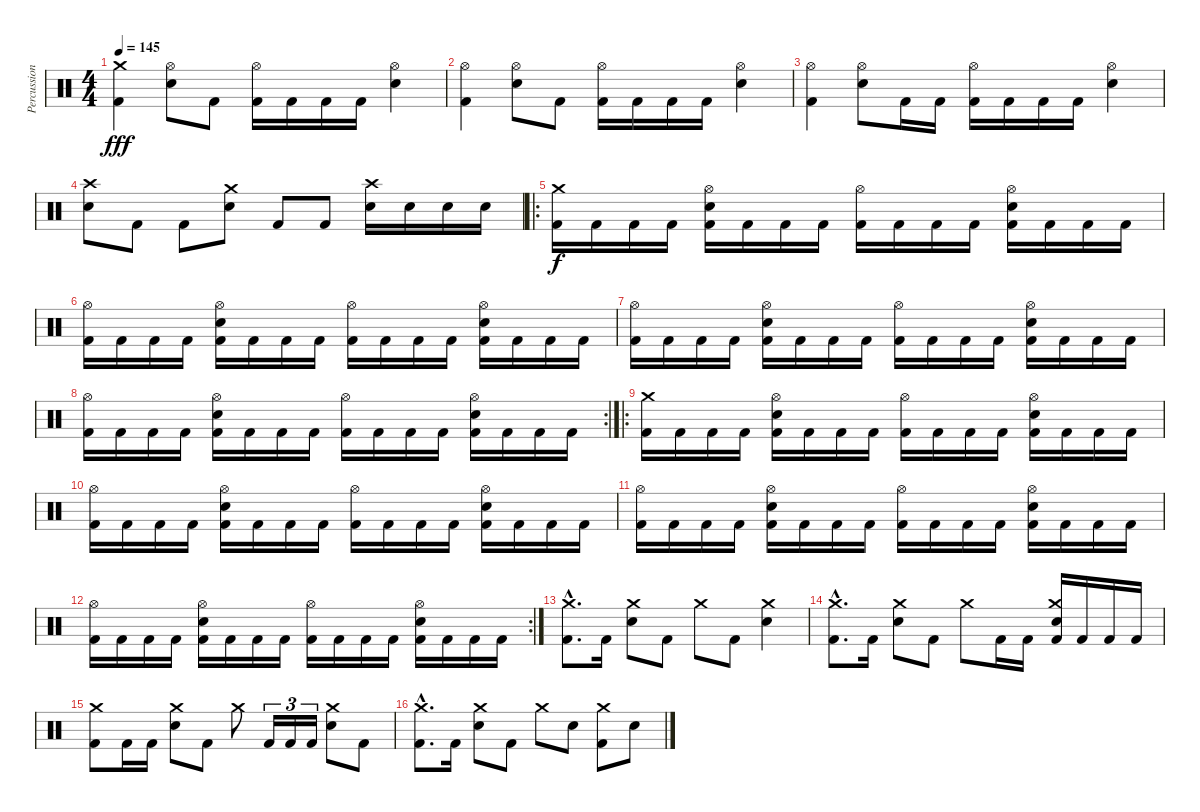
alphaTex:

\track ("Percussion" "Percussion") {instrument percussion}
\staff {score}
\articulation defaults
\ts (4 4)
\tempo 145
\clef neutral
\ks c
("Kick (hit) 2" "Crash medium (hit)").4{dy fff} ("Electric Snare (hit)" "Hi-Hat (open)").8 "Kick (hit) 2".8 ("Kick (hit) 2" "Hi-Hat (open)").16 "Kick (hit) 2".16 "Kick (hit) 2".16 "Kick (hit) 2".16 ("Electric Snare (hit)" "Hi-Hat (open)").4 |
("Kick (hit) 2" "Hi-Hat (open)").4 ("Electric Snare (hit)" "Hi-Hat (open)").8 "Kick (hit) 2".8 ("Kick (hit) 2" "Hi-Hat (open)").16 "Kick (hit) 2".16 "Kick (hit) 2".16 "Kick (hit) 2".16 ("Electric Snare (hit)" "Hi-Hat (open)").4 |
("Kick (hit) 2" "Hi-Hat (open)").4 ("Electric Snare (hit)" "Hi-Hat (open)").8 "Kick (hit) 2".16 "Kick (hit) 2".16 ("Kick (hit) 2" "Hi-Hat (open)").16 "Kick (hit) 2".16 "Kick (hit) 2".16 "Kick (hit) 2".16 ("Electric Snare (hit)" "Hi-Hat (open)").4 |
("Electric Snare (hit)" "Crash high (hit)").8 "Kick (hit) 2".8 "Kick (hit) 2".8 ("Electric Snare (hit)" "Crash medium (hit)").8 "Kick (hit) 2".8 "Kick (hit) 2".8 ("Electric Snare (hit)" "Crash high (hit)").16 "Electric Snare (hit)".16 "Electric Snare (hit)".16 "Electric Snare (hit)".16 |
\ro
("Kick (hit) 2" "Crash medium (hit)").16{dy f} "Kick (hit) 2".16 "Kick (hit) 2".16 "Kick (hit) 2".16 ("Kick (hit) 2" "Electric Snare (hit)" "Hi-Hat (open)").16 "Kick (hit) 2".16 "Kick (hit) 2".16 "Kick (hit) 2".16 ("Kick (hit) 2" "Hi-Hat (open)").16 "Kick (hit) 2".16 "Kick (hit) 2".16 "Kick (hit) 2".16 ("Kick (hit) 2" "Electric Snare (hit)" "Hi-Hat (open)").16 "Kick (hit) 2".16 "Kick (hit) 2".16 "Kick (hit) 2".16 |
("Kick (hit) 2" "Hi-Hat (open)").16 "Kick (hit) 2".16 "Kick (hit) 2".16 "Kick (hit) 2".16 ("Kick (hit) 2" "Electric Snare (hit)" "Hi-Hat (open)").16 "Kick (hit) 2".16 "Kick (hit) 2".16 "Kick (hit) 2".16 ("Kick (hit) 2" "Hi-Hat (open)").16 "Kick (hit) 2".16 "Kick (hit) 2".16 "Kick (hit) 2".16 ("Kick (hit) 2" "Electric Snare (hit)" "Hi-Hat (open)").16 "Kick (hit) 2".16 "Kick (hit) 2".16 "Kick (hit) 2".16 |
("Kick (hit) 2" "Hi-Hat (open)").16 "Kick (hit) 2".16 "Kick (hit) 2".16 "Kick (hit) 2".16 ("Kick (hit) 2" "Electric Snare (hit)" "Hi-Hat (open)").16 "Kick (hit) 2".16 "Kick (hit) 2".16 "Kick (hit) 2".16 ("Kick (hit) 2" "Hi-Hat (open)").16 "Kick (hit) 2".16 "Kick (hit) 2".16 "Kick (hit) 2".16 ("Kick (hit) 2" "Electric Snare (hit)" "Hi-Hat (open)").16 "Kick (hit) 2".16 "Kick (hit) 2".16 "Kick (hit) 2".16 |
\rc 2
("Kick (hit) 2" "Hi-Hat (open)").16 "Kick (hit) 2".16 "Kick (hit) 2".16 "Kick (hit) 2".16 ("Kick (hit) 2" "Electric Snare (hit)" "Hi-Hat (open)").16 "Kick (hit) 2".16 "Kick (hit) 2".16 "Kick (hit) 2".16 ("Kick (hit) 2" "Hi-Hat (open)").16 "Kick (hit) 2".16 "Kick (hit) 2".16 "Kick (hit) 2".16 ("Kick (hit) 2" "Electric Snare (hit)" "Hi-Hat (open)").16 "Kick (hit) 2".16 "Kick (hit) 2".16 "Kick (hit) 2".16 |
\ro
("Kick (hit) 2" "Crash medium (hit)").16 "Kick (hit) 2".16 "Kick (hit) 2".16 "Kick (hit) 2".16 ("Kick (hit) 2" "Electric Snare (hit)" "Hi-Hat (open)").16 "Kick (hit) 2".16 "Kick (hit) 2".16 "Kick (hit) 2".16 ("Kick (hit) 2" "Hi-Hat (open)").16 "Kick (hit) 2".16 "Kick (hit) 2".16 "Kick (hit) 2".16 ("Kick (hit) 2" "Electric Snare (hit)" "Hi-Hat (open)").16 "Kick (hit) 2".16 "Kick (hit) 2".16 "Kick (hit) 2".16 |
("Kick (hit) 2" "Hi-Hat (open)").16 "Kick (hit) 2".16 "Kick (hit) 2".16 "Kick (hit) 2".16 ("Kick (hit) 2" "Electric Snare (hit)" "Hi-Hat (open)").16 "Kick (hit) 2".16 "Kick (hit) 2".16 "Kick (hit) 2".16 ("Kick (hit) 2" "Hi-Hat (open)").16 "Kick (hit) 2".16 "Kick (hit) 2".16 "Kick (hit) 2".16 ("Kick (hit) 2" "Electric Snare (hit)" "Hi-Hat (open)").16 "Kick (hit) 2".16 "Kick (hit) 2".16 "Kick (hit) 2".16 |
("Kick (hit) 2" "Hi-Hat (open)").16 "Kick (hit) 2".16 "Kick (hit) 2".16 "Kick (hit) 2".16 ("Kick (hit) 2" "Electric Snare (hit)" "Hi-Hat (open)").16 "Kick (hit) 2".16 "Kick (hit) 2".16 "Kick (hit) 2".16 ("Kick (hit) 2" "Hi-Hat (open)").16 "Kick (hit) 2".16 "Kick (hit) 2".16 "Kick (hit) 2".16 ("Kick (hit) 2" "Electric Snare (hit)" "Hi-Hat (open)").16 "Kick (hit) 2".16 "Kick (hit) 2".16 "Kick (hit) 2".16 |
\rc 2
("Kick (hit) 2" "Hi-Hat (open)").16 "Kick (hit) 2".16 "Kick (hit) 2".16 "Kick (hit) 2".16 ("Kick (hit) 2" "Electric Snare (hit)" "Hi-Hat (open)").16 "Kick (hit) 2".16 "Kick (hit) 2".16 "Kick (hit) 2".16 ("Kick (hit) 2" "Hi-Hat (open)").16 "Kick (hit) 2".16 "Kick (hit) 2".16 "Kick (hit) 2".16 ("Kick (hit) 2" "Electric Snare (hit)" "Hi-Hat (open)").16 "Kick (hit) 2".16 "Kick (hit) 2".16 "Kick (hit) 2".16 |
("Kick (hit) 2"{hac} "Crash medium (hit)"{hac}).8{d} "Kick (hit) 2".16 ("Electric Snare (hit)" "Crash medium (hit)").8 "Kick (hit) 2".8 "Crash medium (hit)".8 "Kick (hit) 2".8 ("Electric Snare (hit)" "Crash medium (hit)").4 |
("Kick (hit) 2"{hac} "Crash medium (hit)"{hac}).8{d} "Kick (hit) 2".16 ("Electric Snare (hit)" "Crash medium (hit)").8 "Kick (hit) 2".8 "Crash medium (hit)".8 "Kick (hit) 2".16 "Kick (hit) 2".16 ("Kick (hit) 2" "Electric Snare (hit)" "Crash medium (hit)").16 "Kick (hit) 2".16 "Kick (hit) 2".16 "Kick (hit) 2".16 |
("Kick (hit) 2" "Crash medium (hit)").8 "Kick (hit) 2".16 "Kick (hit) 2".16 ("Electric Snare (hit)" "Crash medium (hit)").8 "Kick (hit) 2".8 "Crash medium (hit)".8 "Kick (hit) 2".16{tu (3 2)} "Kick (hit) 2".16{tu (3 2)} "Kick (hit) 2".16{tu (3 2)} ("Electric Snare (hit)" "Crash medium (hit)").8 "Kick (hit) 2".8 |
("Kick (hit) 2"{hac} "Crash medium (hit)"{hac}).8{d} "Kick (hit) 2".16 ("Electric Snare (hit)" "Crash medium (hit)").8 "Kick (hit) 2".8 "Crash medium (hit)".8 "Electric Snare (hit)".8 ("Kick (hit) 2" "Crash medium (hit)").8 "Electric Snare (hit)".8
